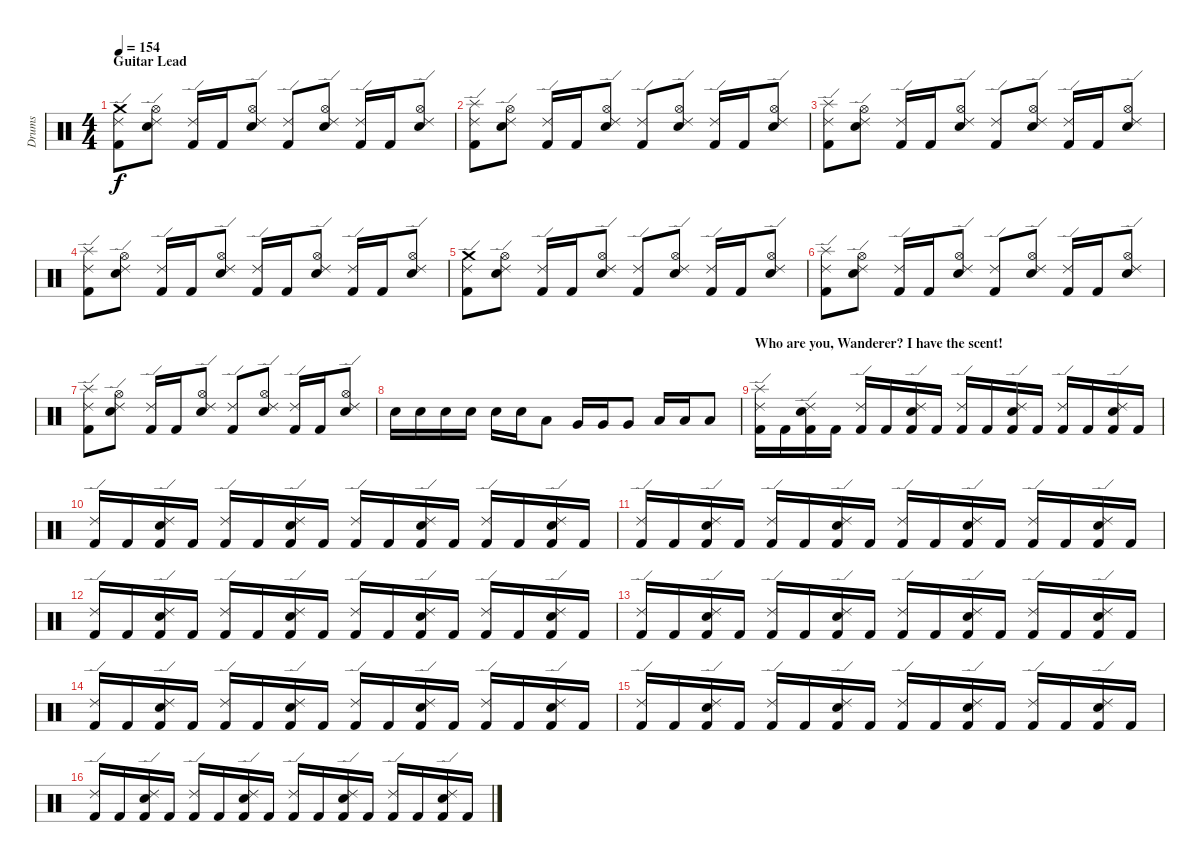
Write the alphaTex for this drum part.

\track ("Drums" "Drums") {instrument percussion}
\staff {score}
\articulation defaults
\ts (4 4)
\section ("" "Guitar Lead")
\tempo 154
\clef neutral
\ks c
("Crash medium (hit)" "Ride (edge) 2" "Kick (hit) 2").8{dy f} ("Ride (edge) 2" "Hi-Hat (open)" "Snare (hit) 2").8 ("Ride (edge) 2" "Kick (hit) 2").16 "Kick (hit) 2".16 ("Ride (edge) 2" "Hi-Hat (open)" "Snare (hit) 2").8 ("Ride (edge) 2" "Kick (hit) 2").8 ("Ride (edge) 2" "Hi-Hat (open)" "Snare (hit) 2").8 ("Ride (edge) 2" "Kick (hit) 2").16 "Kick (hit) 2".16 ("Ride (edge) 2" "Hi-Hat (open)" "Snare (hit) 2").8 |
("Splash (hit)" "Ride (edge) 2" "Kick (hit) 2").8 ("Ride (edge) 2" "Hi-Hat (open)" "Snare (hit) 2").8 ("Ride (edge) 2" "Kick (hit) 2").16 "Kick (hit) 2".16 ("Ride (edge) 2" "Hi-Hat (open)" "Snare (hit) 2").8 ("Ride (edge) 2" "Kick (hit) 2").8 ("Ride (edge) 2" "Hi-Hat (open)" "Snare (hit) 2").8 ("Ride (edge) 2" "Kick (hit) 2").16 "Kick (hit) 2".16 ("Ride (edge) 2" "Hi-Hat (open)" "Snare (hit) 2").8 |
("Splash (hit)" "Ride (edge) 2" "Kick (hit) 2").8 ("Ride (edge) 2" "Hi-Hat (open)" "Snare (hit) 2").8 ("Ride (edge) 2" "Kick (hit) 2").16 "Kick (hit) 2".16 ("Ride (edge) 2" "Hi-Hat (open)" "Snare (hit) 2").8 ("Ride (edge) 2" "Kick (hit) 2").8 ("Ride (edge) 2" "Hi-Hat (open)" "Snare (hit) 2").8 ("Ride (edge) 2" "Kick (hit) 2").16 "Kick (hit) 2".16 ("Ride (edge) 2" "Hi-Hat (open)" "Snare (hit) 2").8 |
("Splash (hit)" "Ride (edge) 2" "Kick (hit) 2").8 ("Ride (edge) 2" "Hi-Hat (open)" "Snare (hit) 2").8 ("Ride (edge) 2" "Kick (hit) 2").16 "Kick (hit) 2".16 ("Ride (edge) 2" "Hi-Hat (open)" "Snare (hit) 2").8 ("Ride (edge) 2" "Kick (hit) 2").16 "Kick (hit) 2".16 ("Ride (edge) 2" "Hi-Hat (open)" "Snare (hit) 2").8 ("Ride (edge) 2" "Kick (hit) 2").16 "Kick (hit) 2".16 ("Ride (edge) 2" "Hi-Hat (open)" "Snare (hit) 2").8 |
("Crash medium (hit)" "Ride (edge) 2" "Kick (hit) 2").8 ("Ride (edge) 2" "Hi-Hat (open)" "Snare (hit) 2").8 ("Ride (edge) 2" "Kick (hit) 2").16 "Kick (hit) 2".16 ("Ride (edge) 2" "Hi-Hat (open)" "Snare (hit) 2").8 ("Ride (edge) 2" "Kick (hit) 2").8 ("Ride (edge) 2" "Hi-Hat (open)" "Snare (hit) 2").8 ("Ride (edge) 2" "Kick (hit) 2").16 "Kick (hit) 2".16 ("Ride (edge) 2" "Hi-Hat (open)" "Snare (hit) 2").8 |
("Splash (hit)" "Ride (edge) 2" "Kick (hit) 2").8 ("Ride (edge) 2" "Hi-Hat (open)" "Snare (hit) 2").8 ("Ride (edge) 2" "Kick (hit) 2").16 "Kick (hit) 2".16 ("Ride (edge) 2" "Hi-Hat (open)" "Snare (hit) 2").8 ("Ride (edge) 2" "Kick (hit) 2").8 ("Ride (edge) 2" "Hi-Hat (open)" "Snare (hit) 2").8 ("Ride (edge) 2" "Kick (hit) 2").16 "Kick (hit) 2".16 ("Ride (edge) 2" "Hi-Hat (open)" "Snare (hit) 2").8 |
("Splash (hit)" "Ride (edge) 2" "Kick (hit) 2").8 ("Ride (edge) 2" "Hi-Hat (open)" "Snare (hit) 2").8 ("Ride (edge) 2" "Kick (hit) 2").16 "Kick (hit) 2".16 ("Ride (edge) 2" "Hi-Hat (open)" "Snare (hit) 2").8 ("Ride (edge) 2" "Kick (hit) 2").8 ("Ride (edge) 2" "Hi-Hat (open)" "Snare (hit) 2").8 ("Ride (edge) 2" "Kick (hit) 2").16 "Kick (hit) 2".16 ("Ride (edge) 2" "Hi-Hat (open)" "Snare (hit) 2").8 |
"Snare (hit) 2".16 "Snare (hit) 2".16 "Snare (hit) 2".16 "Snare (hit) 2".16 "Snare (hit) 2".16 "Snare (hit) 2".16 "Low Tom (hit)".8 "Very Low Tom (hit)".16 "Very Low Tom (hit)".16 "Very Low Tom (hit)".8 "Low Floor Tom (hit)".16 "Low Floor Tom (hit)".16 "Low Floor Tom (hit)".8 |
\section ("" "Who are you, Wanderer? I have the scent!")
("Splash (hit)" "Ride (edge) 2" "Kick (hit) 2").16 "Kick (hit) 2".16 ("Ride (edge) 2" "Snare (hit) 2" "Kick (hit) 2").16 "Kick (hit) 2".16 ("Ride (edge) 2" "Kick (hit) 2").16 "Kick (hit) 2".16 ("Ride (edge) 2" "Snare (hit) 2" "Kick (hit) 2").16 "Kick (hit) 2".16 ("Ride (edge) 2" "Kick (hit) 2").16 "Kick (hit) 2".16 ("Ride (edge) 2" "Snare (hit) 2" "Kick (hit) 2").16 "Kick (hit) 2".16 ("Ride (edge) 2" "Kick (hit) 2").16 "Kick (hit) 2".16 ("Ride (edge) 2" "Snare (hit) 2" "Kick (hit) 2").16 "Kick (hit) 2".16 |
("Ride (edge) 2" "Kick (hit) 2").16 "Kick (hit) 2".16 ("Ride (edge) 2" "Snare (hit) 2" "Kick (hit) 2").16 "Kick (hit) 2".16 ("Ride (edge) 2" "Kick (hit) 2").16 "Kick (hit) 2".16 ("Ride (edge) 2" "Snare (hit) 2" "Kick (hit) 2").16 "Kick (hit) 2".16 ("Ride (edge) 2" "Kick (hit) 2").16 "Kick (hit) 2".16 ("Ride (edge) 2" "Snare (hit) 2" "Kick (hit) 2").16 "Kick (hit) 2".16 ("Ride (edge) 2" "Kick (hit) 2").16 "Kick (hit) 2".16 ("Ride (edge) 2" "Snare (hit) 2" "Kick (hit) 2").16 "Kick (hit) 2".16 |
("Ride (edge) 2" "Kick (hit) 2").16 "Kick (hit) 2".16 ("Ride (edge) 2" "Snare (hit) 2" "Kick (hit) 2").16 "Kick (hit) 2".16 ("Ride (edge) 2" "Kick (hit) 2").16 "Kick (hit) 2".16 ("Ride (edge) 2" "Snare (hit) 2" "Kick (hit) 2").16 "Kick (hit) 2".16 ("Ride (edge) 2" "Kick (hit) 2").16 "Kick (hit) 2".16 ("Ride (edge) 2" "Snare (hit) 2" "Kick (hit) 2").16 "Kick (hit) 2".16 ("Ride (edge) 2" "Kick (hit) 2").16 "Kick (hit) 2".16 ("Ride (edge) 2" "Snare (hit) 2" "Kick (hit) 2").16 "Kick (hit) 2".16 |
("Ride (edge) 2" "Kick (hit) 2").16 "Kick (hit) 2".16 ("Ride (edge) 2" "Snare (hit) 2" "Kick (hit) 2").16 "Kick (hit) 2".16 ("Ride (edge) 2" "Kick (hit) 2").16 "Kick (hit) 2".16 ("Ride (edge) 2" "Snare (hit) 2" "Kick (hit) 2").16 "Kick (hit) 2".16 ("Ride (edge) 2" "Kick (hit) 2").16 "Kick (hit) 2".16 ("Ride (edge) 2" "Snare (hit) 2" "Kick (hit) 2").16 "Kick (hit) 2".16 ("Ride (edge) 2" "Kick (hit) 2").16 "Kick (hit) 2".16 ("Ride (edge) 2" "Snare (hit) 2" "Kick (hit) 2").16 "Kick (hit) 2".16 |
("Ride (edge) 2" "Kick (hit) 2").16 "Kick (hit) 2".16 ("Ride (edge) 2" "Snare (hit) 2" "Kick (hit) 2").16 "Kick (hit) 2".16 ("Ride (edge) 2" "Kick (hit) 2").16 "Kick (hit) 2".16 ("Ride (edge) 2" "Snare (hit) 2" "Kick (hit) 2").16 "Kick (hit) 2".16 ("Ride (edge) 2" "Kick (hit) 2").16 "Kick (hit) 2".16 ("Ride (edge) 2" "Snare (hit) 2" "Kick (hit) 2").16 "Kick (hit) 2".16 ("Ride (edge) 2" "Kick (hit) 2").16 "Kick (hit) 2".16 ("Ride (edge) 2" "Snare (hit) 2" "Kick (hit) 2").16 "Kick (hit) 2".16 |
("Ride (edge) 2" "Kick (hit) 2").16 "Kick (hit) 2".16 ("Ride (edge) 2" "Snare (hit) 2" "Kick (hit) 2").16 "Kick (hit) 2".16 ("Ride (edge) 2" "Kick (hit) 2").16 "Kick (hit) 2".16 ("Ride (edge) 2" "Snare (hit) 2" "Kick (hit) 2").16 "Kick (hit) 2".16 ("Ride (edge) 2" "Kick (hit) 2").16 "Kick (hit) 2".16 ("Ride (edge) 2" "Snare (hit) 2" "Kick (hit) 2").16 "Kick (hit) 2".16 ("Ride (edge) 2" "Kick (hit) 2").16 "Kick (hit) 2".16 ("Ride (edge) 2" "Snare (hit) 2" "Kick (hit) 2").16 "Kick (hit) 2".16 |
("Ride (edge) 2" "Kick (hit) 2").16 "Kick (hit) 2".16 ("Ride (edge) 2" "Snare (hit) 2" "Kick (hit) 2").16 "Kick (hit) 2".16 ("Ride (edge) 2" "Kick (hit) 2").16 "Kick (hit) 2".16 ("Ride (edge) 2" "Snare (hit) 2" "Kick (hit) 2").16 "Kick (hit) 2".16 ("Ride (edge) 2" "Kick (hit) 2").16 "Kick (hit) 2".16 ("Ride (edge) 2" "Snare (hit) 2" "Kick (hit) 2").16 "Kick (hit) 2".16 ("Ride (edge) 2" "Kick (hit) 2").16 "Kick (hit) 2".16 ("Ride (edge) 2" "Snare (hit) 2" "Kick (hit) 2").16 "Kick (hit) 2".16 |
("Ride (edge) 2" "Kick (hit) 2").16 "Kick (hit) 2".16 ("Ride (edge) 2" "Snare (hit) 2" "Kick (hit) 2").16 "Kick (hit) 2".16 ("Ride (edge) 2" "Kick (hit) 2").16 "Kick (hit) 2".16 ("Ride (edge) 2" "Snare (hit) 2" "Kick (hit) 2").16 "Kick (hit) 2".16 ("Ride (edge) 2" "Kick (hit) 2").16 "Kick (hit) 2".16 ("Ride (edge) 2" "Snare (hit) 2" "Kick (hit) 2").16 "Kick (hit) 2".16 ("Ride (edge) 2" "Kick (hit) 2").16 "Kick (hit) 2".16 ("Ride (edge) 2" "Snare (hit) 2" "Kick (hit) 2").16 "Kick (hit) 2".16
